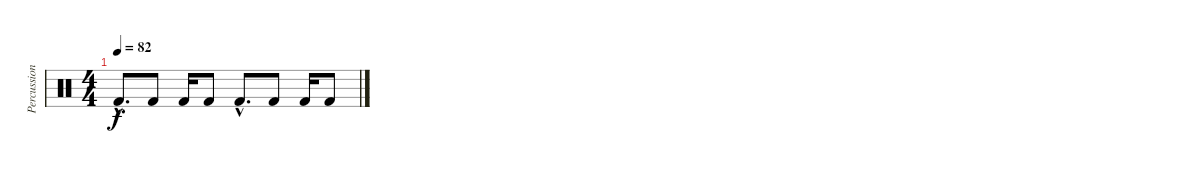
\track ("Percussion" "Percussion") {instrument percussion}
\staff {score}
\articulation defaults
\ts (4 4)
\tempo 82
\clef neutral
\ks c "Kick (hit) 2"{hac}.8{d dy f} "Kick (hit) 2".8 "Kick (hit) 2".16 "Kick (hit) 2".8 "Kick (hit) 2"{hac}.8{d} "Kick (hit) 2".8 "Kick (hit) 2".16 "Kick (hit) 2".8
